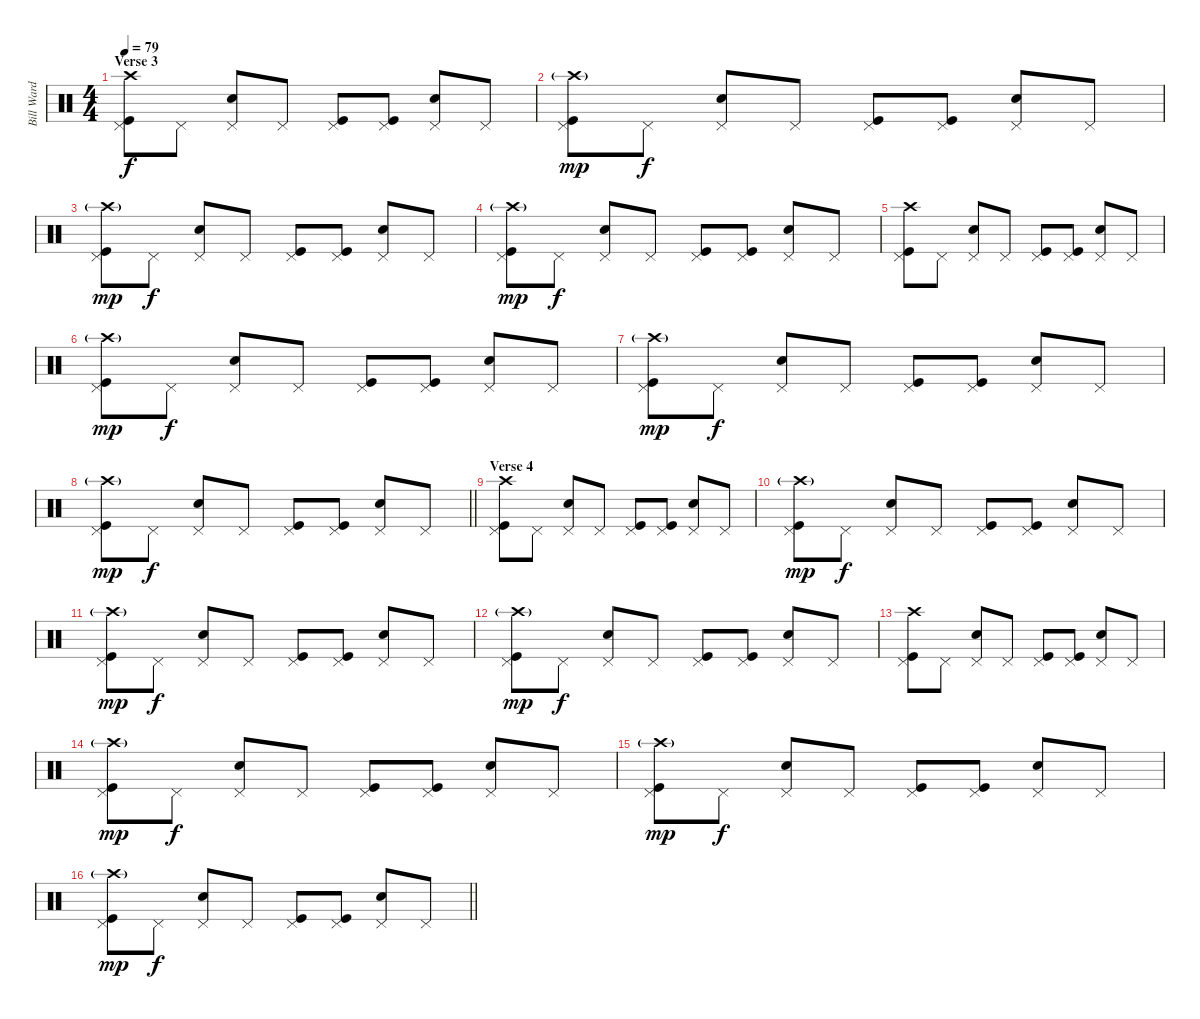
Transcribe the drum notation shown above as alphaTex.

\track ("Bill Ward" "Bill Ward") {instrument percussion}
\staff {score}
\articulation defaults
\ts (4 4)
\section ("" "Verse 3")
\tempo 79
\clef neutral
\ks c
("Crash high (hit)" "Pedal Hi-Hat (hit)" "Kick (hit)").8{dy f} "Pedal Hi-Hat (hit)".8 ("Pedal Hi-Hat (hit)" "Electric Snare (hit)").8 "Pedal Hi-Hat (hit)".8 ("Pedal Hi-Hat (hit)" "Kick (hit)").8 ("Pedal Hi-Hat (hit)" "Kick (hit)").8 ("Pedal Hi-Hat (hit)" "Electric Snare (hit)").8 "Pedal Hi-Hat (hit)".8 |
("Crash high (hit)"{g} "Pedal Hi-Hat (hit)" "Kick (hit)").8{dy mp} "Pedal Hi-Hat (hit)".8{dy f} ("Pedal Hi-Hat (hit)" "Electric Snare (hit)").8 "Pedal Hi-Hat (hit)".8 ("Pedal Hi-Hat (hit)" "Kick (hit)").8 ("Pedal Hi-Hat (hit)" "Kick (hit)").8 ("Pedal Hi-Hat (hit)" "Electric Snare (hit)").8 "Pedal Hi-Hat (hit)".8 |
("Crash high (hit)"{g} "Pedal Hi-Hat (hit)" "Kick (hit)").8{dy mp} "Pedal Hi-Hat (hit)".8{dy f} ("Pedal Hi-Hat (hit)" "Electric Snare (hit)").8 "Pedal Hi-Hat (hit)".8 ("Pedal Hi-Hat (hit)" "Kick (hit)").8 ("Pedal Hi-Hat (hit)" "Kick (hit)").8 ("Pedal Hi-Hat (hit)" "Electric Snare (hit)").8 "Pedal Hi-Hat (hit)".8 |
("Crash high (hit)"{g} "Pedal Hi-Hat (hit)" "Kick (hit)").8{dy mp} "Pedal Hi-Hat (hit)".8{dy f} ("Pedal Hi-Hat (hit)" "Electric Snare (hit)").8 "Pedal Hi-Hat (hit)".8 ("Pedal Hi-Hat (hit)" "Kick (hit)").8 ("Pedal Hi-Hat (hit)" "Kick (hit)").8 ("Pedal Hi-Hat (hit)" "Electric Snare (hit)").8 "Pedal Hi-Hat (hit)".8 |
("Crash high (hit)" "Pedal Hi-Hat (hit)" "Kick (hit)").8 "Pedal Hi-Hat (hit)".8 ("Pedal Hi-Hat (hit)" "Electric Snare (hit)").8 "Pedal Hi-Hat (hit)".8 ("Pedal Hi-Hat (hit)" "Kick (hit)").8 ("Pedal Hi-Hat (hit)" "Kick (hit)").8 ("Pedal Hi-Hat (hit)" "Electric Snare (hit)").8 "Pedal Hi-Hat (hit)".8 |
("Crash high (hit)"{g} "Pedal Hi-Hat (hit)" "Kick (hit)").8{dy mp} "Pedal Hi-Hat (hit)".8{dy f} ("Pedal Hi-Hat (hit)" "Electric Snare (hit)").8 "Pedal Hi-Hat (hit)".8 ("Pedal Hi-Hat (hit)" "Kick (hit)").8 ("Pedal Hi-Hat (hit)" "Kick (hit)").8 ("Pedal Hi-Hat (hit)" "Electric Snare (hit)").8 "Pedal Hi-Hat (hit)".8 |
("Crash high (hit)"{g} "Pedal Hi-Hat (hit)" "Kick (hit)").8{dy mp} "Pedal Hi-Hat (hit)".8{dy f} ("Pedal Hi-Hat (hit)" "Electric Snare (hit)").8 "Pedal Hi-Hat (hit)".8 ("Pedal Hi-Hat (hit)" "Kick (hit)").8 ("Pedal Hi-Hat (hit)" "Kick (hit)").8 ("Pedal Hi-Hat (hit)" "Electric Snare (hit)").8 "Pedal Hi-Hat (hit)".8 |
\barLineRight lightlight
("Crash high (hit)"{g} "Pedal Hi-Hat (hit)" "Kick (hit)").8{dy mp} "Pedal Hi-Hat (hit)".8{dy f} ("Pedal Hi-Hat (hit)" "Electric Snare (hit)").8 "Pedal Hi-Hat (hit)".8 ("Pedal Hi-Hat (hit)" "Kick (hit)").8 ("Pedal Hi-Hat (hit)" "Kick (hit)").8 ("Pedal Hi-Hat (hit)" "Electric Snare (hit)").8 "Pedal Hi-Hat (hit)".8 |
\section ("" "Verse 4")
("Crash high (hit)" "Pedal Hi-Hat (hit)" "Kick (hit)").8 "Pedal Hi-Hat (hit)".8 ("Pedal Hi-Hat (hit)" "Electric Snare (hit)").8 "Pedal Hi-Hat (hit)".8 ("Pedal Hi-Hat (hit)" "Kick (hit)").8 ("Pedal Hi-Hat (hit)" "Kick (hit)").8 ("Pedal Hi-Hat (hit)" "Electric Snare (hit)").8 "Pedal Hi-Hat (hit)".8 |
("Crash high (hit)"{g} "Pedal Hi-Hat (hit)" "Kick (hit)").8{dy mp} "Pedal Hi-Hat (hit)".8{dy f} ("Pedal Hi-Hat (hit)" "Electric Snare (hit)").8 "Pedal Hi-Hat (hit)".8 ("Pedal Hi-Hat (hit)" "Kick (hit)").8 ("Pedal Hi-Hat (hit)" "Kick (hit)").8 ("Pedal Hi-Hat (hit)" "Electric Snare (hit)").8 "Pedal Hi-Hat (hit)".8 |
("Crash high (hit)"{g} "Pedal Hi-Hat (hit)" "Kick (hit)").8{dy mp} "Pedal Hi-Hat (hit)".8{dy f} ("Pedal Hi-Hat (hit)" "Electric Snare (hit)").8 "Pedal Hi-Hat (hit)".8 ("Pedal Hi-Hat (hit)" "Kick (hit)").8 ("Pedal Hi-Hat (hit)" "Kick (hit)").8 ("Pedal Hi-Hat (hit)" "Electric Snare (hit)").8 "Pedal Hi-Hat (hit)".8 |
("Crash high (hit)"{g} "Pedal Hi-Hat (hit)" "Kick (hit)").8{dy mp} "Pedal Hi-Hat (hit)".8{dy f} ("Pedal Hi-Hat (hit)" "Electric Snare (hit)").8 "Pedal Hi-Hat (hit)".8 ("Pedal Hi-Hat (hit)" "Kick (hit)").8 ("Pedal Hi-Hat (hit)" "Kick (hit)").8 ("Pedal Hi-Hat (hit)" "Electric Snare (hit)").8 "Pedal Hi-Hat (hit)".8 |
("Crash high (hit)" "Pedal Hi-Hat (hit)" "Kick (hit)").8 "Pedal Hi-Hat (hit)".8 ("Pedal Hi-Hat (hit)" "Electric Snare (hit)").8 "Pedal Hi-Hat (hit)".8 ("Pedal Hi-Hat (hit)" "Kick (hit)").8 ("Pedal Hi-Hat (hit)" "Kick (hit)").8 ("Pedal Hi-Hat (hit)" "Electric Snare (hit)").8 "Pedal Hi-Hat (hit)".8 |
("Crash high (hit)"{g} "Pedal Hi-Hat (hit)" "Kick (hit)").8{dy mp} "Pedal Hi-Hat (hit)".8{dy f} ("Pedal Hi-Hat (hit)" "Electric Snare (hit)").8 "Pedal Hi-Hat (hit)".8 ("Pedal Hi-Hat (hit)" "Kick (hit)").8 ("Pedal Hi-Hat (hit)" "Kick (hit)").8 ("Pedal Hi-Hat (hit)" "Electric Snare (hit)").8 "Pedal Hi-Hat (hit)".8 |
("Crash high (hit)"{g} "Pedal Hi-Hat (hit)" "Kick (hit)").8{dy mp} "Pedal Hi-Hat (hit)".8{dy f} ("Pedal Hi-Hat (hit)" "Electric Snare (hit)").8 "Pedal Hi-Hat (hit)".8 ("Pedal Hi-Hat (hit)" "Kick (hit)").8 ("Pedal Hi-Hat (hit)" "Kick (hit)").8 ("Pedal Hi-Hat (hit)" "Electric Snare (hit)").8 "Pedal Hi-Hat (hit)".8 |
\barLineRight lightlight
("Crash high (hit)"{g} "Pedal Hi-Hat (hit)" "Kick (hit)").8{dy mp} "Pedal Hi-Hat (hit)".8{dy f} ("Pedal Hi-Hat (hit)" "Electric Snare (hit)").8 "Pedal Hi-Hat (hit)".8 ("Pedal Hi-Hat (hit)" "Kick (hit)").8 ("Pedal Hi-Hat (hit)" "Kick (hit)").8 ("Pedal Hi-Hat (hit)" "Electric Snare (hit)").8 "Pedal Hi-Hat (hit)".8
